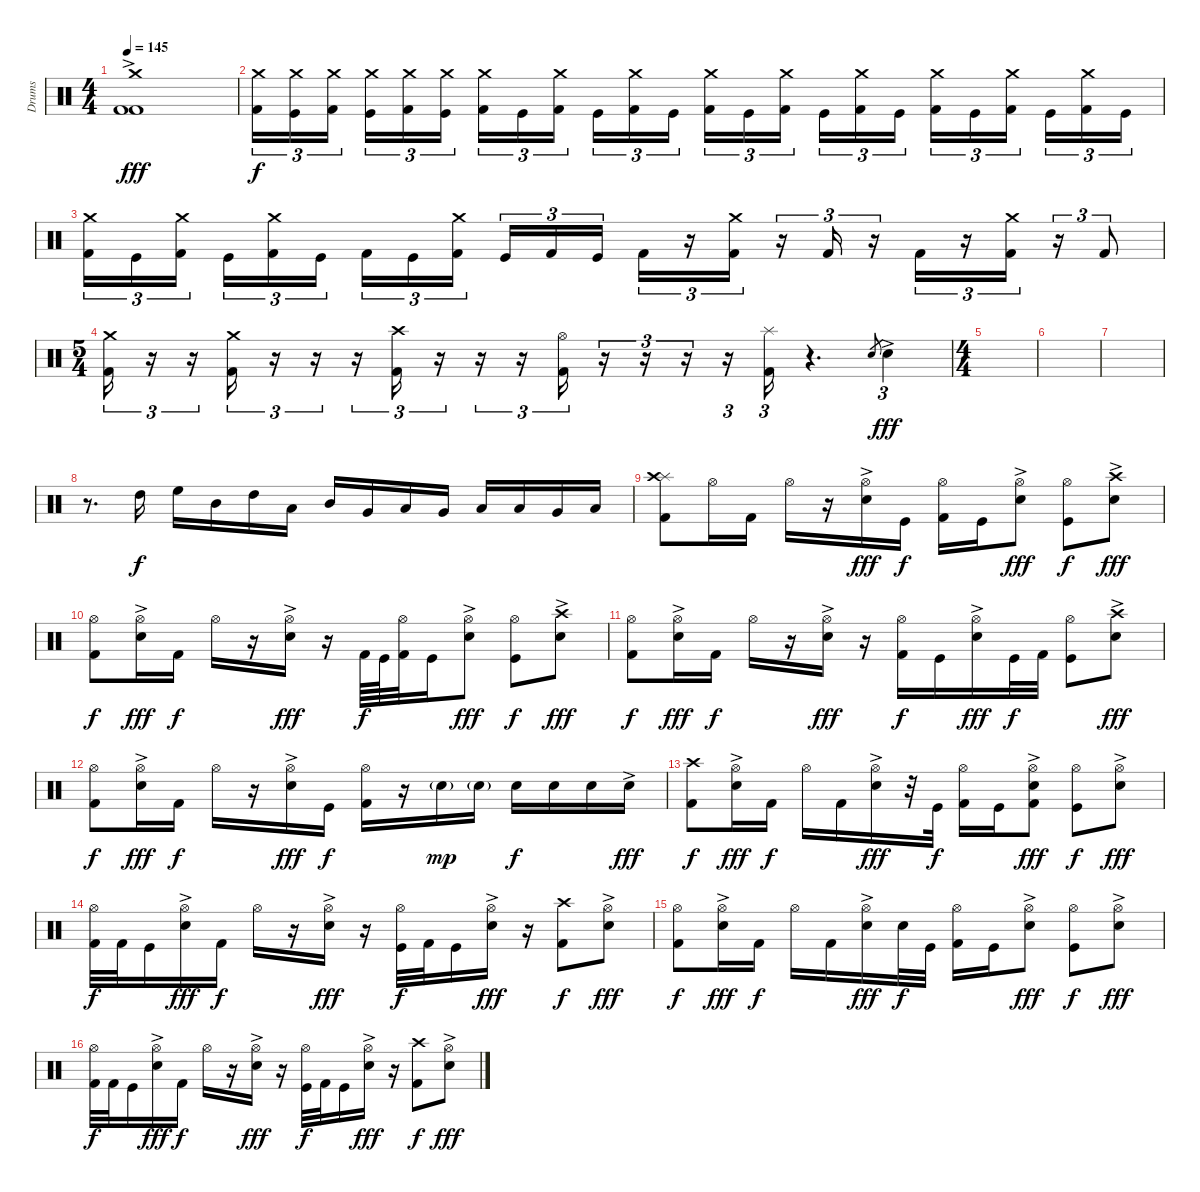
\track ("Drums" "Drums") {instrument percussion}
\staff {score}
\articulation defaults
\ts (4 4)
\tempo 145
\clef neutral
\ks c
("Crash medium (hit)"{ac} "Kick (hit) 2"{ac} "Kick (hit) 2"{ac}).1{dy fff} |
("Crash medium (hit)" "Kick (hit) 2").16{tu (3 2) dy f} ("Crash medium (hit)" "Kick (hit)").16{tu (3 2)} ("Crash medium (hit)" "Kick (hit) 2").16{tu (3 2)} ("Crash medium (hit)" "Kick (hit)").16{tu (3 2)} ("Crash medium (hit)" "Kick (hit) 2").16{tu (3 2)} ("Crash medium (hit)" "Kick (hit)").16{tu (3 2)} ("Crash medium (hit)" "Kick (hit) 2").16{tu (3 2)} "Kick (hit)".16{tu (3 2)} ("Crash medium (hit)" "Kick (hit) 2").16{tu (3 2)} "Kick (hit)".16{tu (3 2)} ("Crash medium (hit)" "Kick (hit) 2").16{tu (3 2)} "Kick (hit)".16{tu (3 2)} ("Crash medium (hit)" "Kick (hit) 2").16{tu (3 2)} "Kick (hit)".16{tu (3 2)} ("Crash medium (hit)" "Kick (hit) 2").16{tu (3 2)} "Kick (hit)".16{tu (3 2)} ("Crash medium (hit)" "Kick (hit) 2").16{tu (3 2)} "Kick (hit)".16{tu (3 2)} ("Crash medium (hit)" "Kick (hit) 2").16{tu (3 2)} "Kick (hit)".16{tu (3 2)} ("Crash medium (hit)" "Kick (hit) 2").16{tu (3 2)} "Kick (hit)".16{tu (3 2)} ("Crash medium (hit)" "Kick (hit) 2").16{tu (3 2)} "Kick (hit)".16{tu (3 2)} |
("Crash medium (hit)" "Kick (hit) 2").16{tu (3 2)} "Kick (hit)".16{tu (3 2)} ("Crash medium (hit)" "Kick (hit) 2").16{tu (3 2)} "Kick (hit)".16{tu (3 2)} ("Crash medium (hit)" "Kick (hit) 2").16{tu (3 2)} "Kick (hit)".16{tu (3 2)} "Kick (hit) 2".16{tu (3 2)} "Kick (hit)".16{tu (3 2)} ("Crash medium (hit)" "Kick (hit) 2").16{tu (3 2)} "Kick (hit)".16{tu (3 2)} "Kick (hit) 2".16{tu (3 2)} "Kick (hit)".16{tu (3 2)} "Kick (hit) 2".16{tu (3 2)} r.16{tu (3 2)} ("Crash medium (hit)" "Kick (hit) 2").16{tu (3 2)} r.16{tu (3 2)} "Kick (hit) 2".16{tu (3 2)} r.16{tu (3 2)} "Kick (hit) 2".16{tu (3 2)} r.16{tu (3 2)} ("Crash medium (hit)" "Kick (hit) 2").16{tu (3 2)} r.16{tu (3 2)} "Kick (hit) 2".8{tu (3 2)} |
\ts (5 4)
("Crash medium (hit)" "Kick (hit) 2").16{tu (3 2)} r.16{tu (3 2)} r.16{tu (3 2)} ("Crash medium (hit)" "Kick (hit) 2").16{tu (3 2)} r.16{tu (3 2)} r.16{tu (3 2)} r.16{tu (3 2)} ("Crash high (hit)" "Kick (hit) 2").16{tu (3 2)} r.16{tu (3 2)} r.16{tu (3 2)} r.16{tu (3 2)} ("Hi-Hat (open)" "Kick (hit) 2").16{tu (3 2)} r.16{tu (3 2)} r.16{tu (3 2)} r.16{tu (3 2)} r.16{tu (3 2)} ("Splash (hit)" "Kick (hit) 2").16{tu (3 2)} r.4{d} "Electric Snare (hit)".8{gr} "Electric Snare (hit)"{ac}.4{tu (3 2) dy fff} |
\ts (4 4)
|
|
|
r.8{d} "High Tom (hit)".16{dy f} "High Floor Tom (hit)".16 "Mid Tom (hit)".16 "High Tom (hit)".16 "Low Tom (hit)".16 "Mid Tom (hit)".16 "Very Low Tom (hit)".16 "Low Tom (hit)".16 "Very Low Tom (hit)".16 "Low Tom (hit)".16 "Low Floor Tom (hit)".16 "Very Low Tom (hit)".16 "Low Floor Tom (hit)".16 |
("Splash (hit)" "Crash high (hit)" "Kick (hit) 2").8 "Hi-Hat (open)".16 "Kick (hit) 2".16 "Hi-Hat (open)".16 r.16 ("Hi-Hat (open)" "Electric Snare (hit)"{ac}).16{dy fff} "Kick (hit)".16{dy f} ("Hi-Hat (open)" "Kick (hit) 2").16 "Kick (hit)".16 ("Hi-Hat (open)" "Electric Snare (hit)"{ac}).8{dy fff} ("Hi-Hat (open)" "Kick (hit)").8{dy f} ("Crash high (hit)" "Electric Snare (hit)"{ac}).8{dy fff} |
("Hi-Hat (open)" "Kick (hit) 2").8{dy f} ("Hi-Hat (open)" "Electric Snare (hit)"{ac}).16{dy fff} "Kick (hit) 2".16{dy f} "Hi-Hat (open)".16 r.16 ("Hi-Hat (open)" "Electric Snare (hit)"{ac}).16{dy fff} r.16 "Kick (hit) 2".64{dy f} "Kick (hit)".64 ("Hi-Hat (open)" "Kick (hit) 2").32 "Kick (hit)".16 ("Hi-Hat (open)" "Electric Snare (hit)"{ac}).8{dy fff} ("Hi-Hat (open)" "Kick (hit)").8{dy f} ("Crash high (hit)" "Electric Snare (hit)"{ac}).8{dy fff} |
("Hi-Hat (open)" "Kick (hit) 2").8{dy f} ("Hi-Hat (open)" "Electric Snare (hit)"{ac}).16{dy fff} "Kick (hit) 2".16{dy f} "Hi-Hat (open)".16 r.16 ("Hi-Hat (open)" "Electric Snare (hit)"{ac}).16{dy fff} r.16 ("Hi-Hat (open)" "Kick (hit) 2").16{dy f} "Kick (hit)".16 ("Hi-Hat (open)" "Electric Snare (hit)"{ac}).16{dy fff} "Kick (hit)".32{dy f} "Kick (hit) 2".32 ("Hi-Hat (open)" "Kick (hit)").8 ("Crash high (hit)" "Electric Snare (hit)"{ac}).8{dy fff} |
("Hi-Hat (open)" "Kick (hit) 2").8{dy f} ("Hi-Hat (open)" "Electric Snare (hit)"{ac}).16{dy fff} "Kick (hit) 2".16{dy f} "Hi-Hat (open)".16 r.16 ("Hi-Hat (open)" "Electric Snare (hit)"{ac}).16{dy fff} "Kick (hit)".16{dy f} ("Hi-Hat (open)" "Kick (hit) 2").16 r.16 "Electric Snare (hit)"{g}.16{dy mp} "Electric Snare (hit)"{g}.16 "Electric Snare (hit)".16{dy f} "Electric Snare (hit)".16 "Electric Snare (hit)".16 "Electric Snare (hit)"{ac}.16{dy fff} |
("Crash high (hit)" "Kick (hit) 2").8{dy f} ("Hi-Hat (open)" "Electric Snare (hit)"{ac}).16{dy fff} "Kick (hit) 2".16{dy f} "Hi-Hat (open)".16 "Kick (hit) 2".16 ("Hi-Hat (open)" "Electric Snare (hit)"{ac}).16{dy fff} r.32 "Kick (hit)".32{dy f} ("Hi-Hat (open)" "Kick (hit) 2").16 "Kick (hit)".16 ("Hi-Hat (open)" "Electric Snare (hit)"{ac} "Kick (hit) 2").8{dy fff} ("Hi-Hat (open)" "Kick (hit)").8{dy f} ("Hi-Hat (open)" "Electric Snare (hit)"{ac}).8{dy fff} |
("Hi-Hat (open)" "Kick (hit) 2").32{dy f} "Kick (hit) 2".32 "Kick (hit)".16 ("Hi-Hat (open)" "Electric Snare (hit)"{ac}).16{dy fff} "Kick (hit) 2".16{dy f} "Hi-Hat (open)".16 r.16 ("Hi-Hat (open)" "Electric Snare (hit)"{ac}).16{dy fff} r.16 ("Hi-Hat (open)" "Kick (hit)").32{dy f} "Kick (hit) 2".32 "Kick (hit)".16 ("Hi-Hat (open)" "Electric Snare (hit)"{ac}).16{dy fff} r.16 ("Crash high (hit)" "Kick (hit) 2").8{dy f} ("Hi-Hat (open)" "Electric Snare (hit)"{ac}).8{dy fff} |
("Hi-Hat (open)" "Kick (hit) 2").8{dy f} ("Hi-Hat (open)" "Electric Snare (hit)"{ac}).16{dy fff} "Kick (hit) 2".16{dy f} "Hi-Hat (open)".16 "Kick (hit) 2".16 ("Hi-Hat (open)" "Electric Snare (hit)"{ac}).16{dy fff} "Snare (hit)".32{dy f} "Kick (hit)".32 ("Hi-Hat (open)" "Kick (hit) 2").16 "Kick (hit)".16 ("Hi-Hat (open)" "Electric Snare (hit)"{ac}).8{dy fff} ("Hi-Hat (open)" "Kick (hit)").8{dy f} ("Hi-Hat (open)" "Electric Snare (hit)"{ac}).8{dy fff} |
("Hi-Hat (open)" "Kick (hit) 2").32{dy f} "Kick (hit) 2".32 "Kick (hit)".16 ("Hi-Hat (open)" "Electric Snare (hit)"{ac}).16{dy fff} "Kick (hit) 2".16{dy f} "Hi-Hat (open)".16 r.16 ("Hi-Hat (open)" "Electric Snare (hit)"{ac}).16{dy fff} r.16 ("Hi-Hat (open)" "Kick (hit)").32{dy f} "Kick (hit) 2".32 "Kick (hit)".16 ("Hi-Hat (open)" "Electric Snare (hit)"{ac}).16{dy fff} r.16 ("Crash high (hit)" "Kick (hit) 2").8{dy f} ("Hi-Hat (open)" "Electric Snare (hit)"{ac}).8{dy fff}
